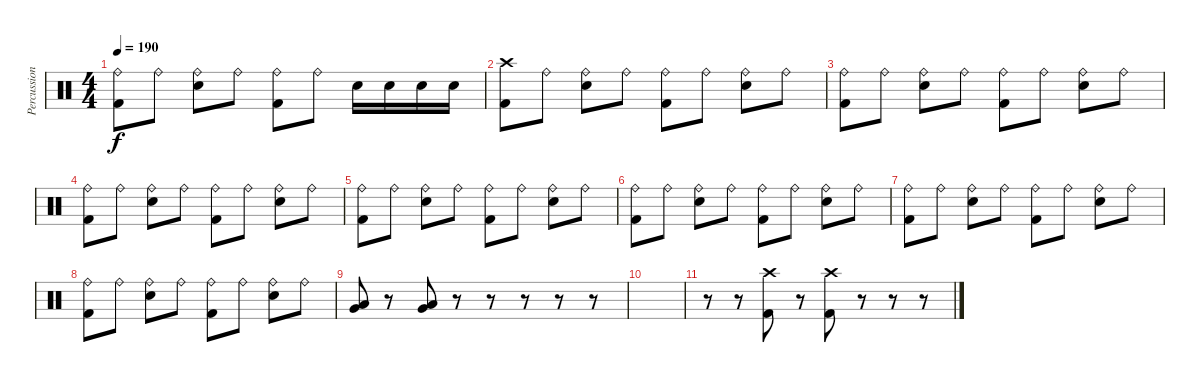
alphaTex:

\track ("Percussion" "Percussion") {instrument percussion}
\staff {score}
\articulation defaults
\ts (4 4)
\tempo 190
\clef neutral
\ks c
("Kick (hit) 2" "Ride (bell)").8{dy f} "Ride (bell)".8 ("Ride (bell)" "Snare (hit) 2").8 "Ride (bell)".8 ("Kick (hit) 2" "Ride (bell)").8 "Ride (bell)".8 "Snare (hit) 2".16 "Snare (hit) 2".16 "Snare (hit) 2".16 "Snare (hit) 2".16 |
("Kick (hit) 2" "Crash high (hit)").8 "Ride (bell)".8 ("Ride (bell)" "Snare (hit) 2").8 "Ride (bell)".8 ("Kick (hit) 2" "Ride (bell)").8 "Ride (bell)".8 ("Ride (bell)" "Snare (hit) 2").8 "Ride (bell)".8 |
("Kick (hit) 2" "Ride (bell)").8 "Ride (bell)".8 ("Ride (bell)" "Snare (hit) 2").8 "Ride (bell)".8 ("Kick (hit) 2" "Ride (bell)").8 "Ride (bell)".8 ("Ride (bell)" "Snare (hit) 2").8 "Ride (bell)".8 |
("Kick (hit) 2" "Ride (bell)").8 "Ride (bell)".8 ("Ride (bell)" "Snare (hit) 2").8 "Ride (bell)".8 ("Kick (hit) 2" "Ride (bell)").8 "Ride (bell)".8 ("Ride (bell)" "Snare (hit) 2").8 "Ride (bell)".8 |
("Kick (hit) 2" "Ride (bell)").8 "Ride (bell)".8 ("Ride (bell)" "Snare (hit) 2").8 "Ride (bell)".8 ("Kick (hit) 2" "Ride (bell)").8 "Ride (bell)".8 ("Ride (bell)" "Snare (hit) 2").8 "Ride (bell)".8 |
("Kick (hit) 2" "Ride (bell)").8 "Ride (bell)".8 ("Ride (bell)" "Snare (hit) 2").8 "Ride (bell)".8 ("Kick (hit) 2" "Ride (bell)").8 "Ride (bell)".8 ("Ride (bell)" "Snare (hit) 2").8 "Ride (bell)".8 |
("Kick (hit) 2" "Ride (bell)").8 "Ride (bell)".8 ("Ride (bell)" "Snare (hit) 2").8 "Ride (bell)".8 ("Kick (hit) 2" "Ride (bell)").8 "Ride (bell)".8 ("Ride (bell)" "Snare (hit) 2").8 "Ride (bell)".8 |
("Kick (hit) 2" "Ride (bell)").8 "Ride (bell)".8 ("Ride (bell)" "Snare (hit) 2").8 "Ride (bell)".8 ("Kick (hit) 2" "Ride (bell)").8 "Ride (bell)".8 ("Ride (bell)" "Snare (hit) 2").8 "Ride (bell)".8 |
("Very Low Tom (hit)" "Low Floor Tom (hit)").8 r.8 ("Very Low Tom (hit)" "Low Floor Tom (hit)").8 r.8 r.8 r.8 r.8 r.8 |
|
r.8 r.8 ("Kick (hit) 2" "Crash high (hit)").8 r.8 ("Kick (hit) 2" "Crash high (hit)").8 r.8 r.8 r.8
